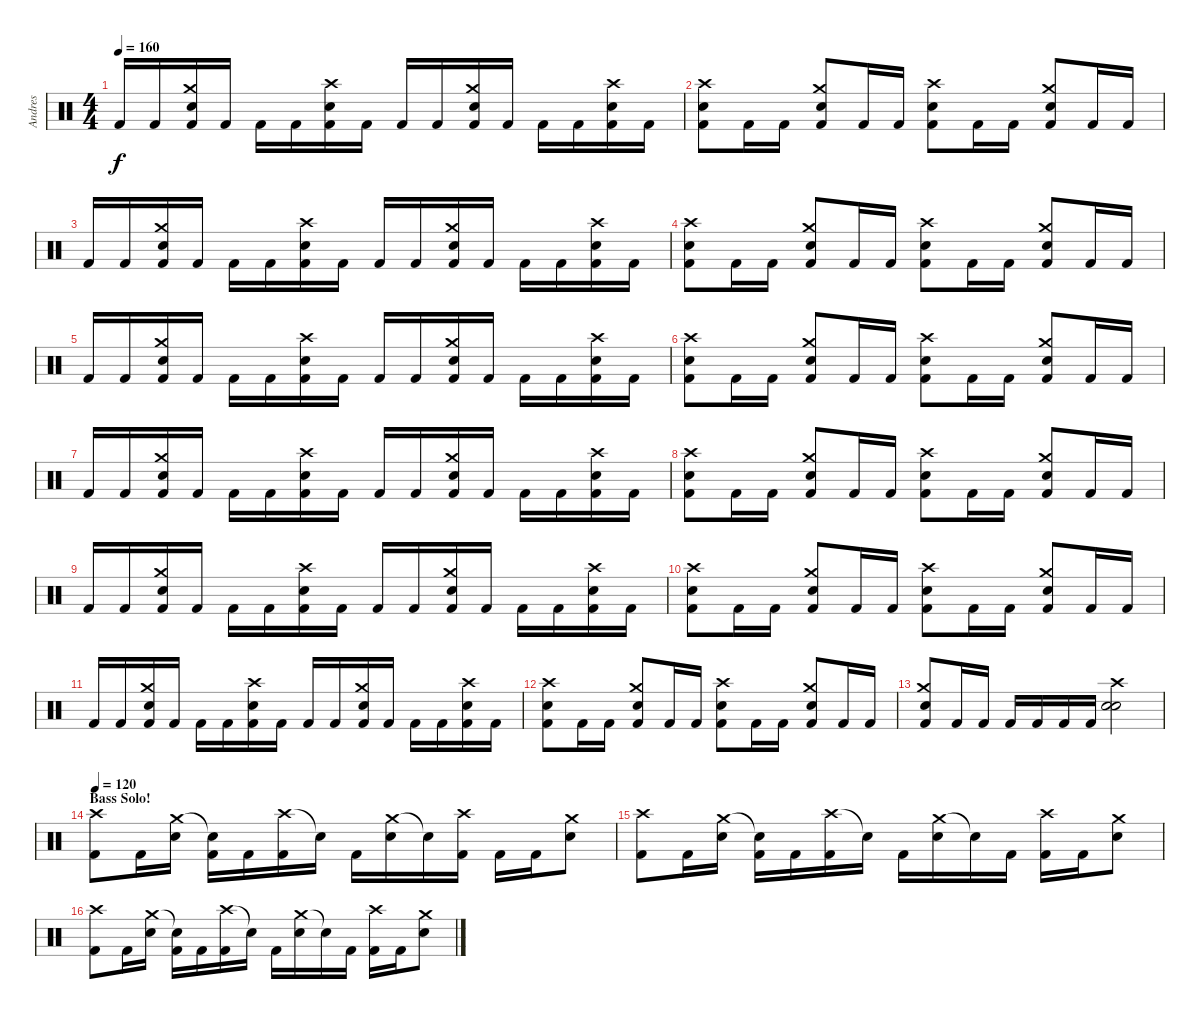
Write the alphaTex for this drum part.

\track ("Andres" "Andres") {instrument percussion}
\staff {score}
\articulation defaults
\ts (4 4)
\tempo 160
\clef neutral
\ks c "Kick (hit) 2".16{dy f} "Kick (hit) 2".16
("Crash medium (hit)" "Electric Snare (hit)" "Kick (hit) 2").16 "Kick (hit) 2".16 "Kick (hit) 2".16 "Kick (hit) 2".16 ("Crash high (hit)" "Electric Snare (hit)" "Kick (hit) 2").16 "Kick (hit) 2".16 "Kick (hit) 2".16 "Kick (hit) 2".16 ("Crash medium (hit)" "Electric Snare (hit)" "Kick (hit) 2").16 "Kick (hit) 2".16 "Kick (hit) 2".16 "Kick (hit) 2".16 ("Crash high (hit)" "Electric Snare (hit)" "Kick (hit) 2").16 "Kick (hit) 2".16 |
("Crash high (hit)" "Electric Snare (hit)" "Kick (hit) 2").8 "Kick (hit) 2".16 "Kick (hit) 2".16 ("Crash medium (hit)" "Electric Snare (hit)" "Kick (hit) 2").8 "Kick (hit) 2".16 "Kick (hit) 2".16 ("Crash high (hit)" "Electric Snare (hit)" "Kick (hit) 2").8 "Kick (hit) 2".16 "Kick (hit) 2".16 ("Crash medium (hit)" "Electric Snare (hit)" "Kick (hit) 2").8 "Kick (hit) 2".16 "Kick (hit) 2".16 |
"Kick (hit) 2".16 "Kick (hit) 2".16 ("Crash medium (hit)" "Electric Snare (hit)" "Kick (hit) 2").16 "Kick (hit) 2".16 "Kick (hit) 2".16 "Kick (hit) 2".16 ("Crash high (hit)" "Electric Snare (hit)" "Kick (hit) 2").16 "Kick (hit) 2".16 "Kick (hit) 2".16 "Kick (hit) 2".16 ("Crash medium (hit)" "Electric Snare (hit)" "Kick (hit) 2").16 "Kick (hit) 2".16 "Kick (hit) 2".16 "Kick (hit) 2".16 ("Crash high (hit)" "Electric Snare (hit)" "Kick (hit) 2").16 "Kick (hit) 2".16 |
("Crash high (hit)" "Electric Snare (hit)" "Kick (hit) 2").8 "Kick (hit) 2".16 "Kick (hit) 2".16 ("Crash medium (hit)" "Electric Snare (hit)" "Kick (hit) 2").8 "Kick (hit) 2".16 "Kick (hit) 2".16 ("Crash high (hit)" "Electric Snare (hit)" "Kick (hit) 2").8 "Kick (hit) 2".16 "Kick (hit) 2".16 ("Crash medium (hit)" "Electric Snare (hit)" "Kick (hit) 2").8 "Kick (hit) 2".16 "Kick (hit) 2".16 |
"Kick (hit) 2".16 "Kick (hit) 2".16 ("Crash medium (hit)" "Electric Snare (hit)" "Kick (hit) 2").16 "Kick (hit) 2".16 "Kick (hit) 2".16 "Kick (hit) 2".16 ("Crash high (hit)" "Electric Snare (hit)" "Kick (hit) 2").16 "Kick (hit) 2".16 "Kick (hit) 2".16 "Kick (hit) 2".16 ("Crash medium (hit)" "Electric Snare (hit)" "Kick (hit) 2").16 "Kick (hit) 2".16 "Kick (hit) 2".16 "Kick (hit) 2".16 ("Crash high (hit)" "Electric Snare (hit)" "Kick (hit) 2").16 "Kick (hit) 2".16 |
("Crash high (hit)" "Electric Snare (hit)" "Kick (hit) 2").8 "Kick (hit) 2".16 "Kick (hit) 2".16 ("Crash medium (hit)" "Electric Snare (hit)" "Kick (hit) 2").8 "Kick (hit) 2".16 "Kick (hit) 2".16 ("Crash high (hit)" "Electric Snare (hit)" "Kick (hit) 2").8 "Kick (hit) 2".16 "Kick (hit) 2".16 ("Crash medium (hit)" "Electric Snare (hit)" "Kick (hit) 2").8 "Kick (hit) 2".16 "Kick (hit) 2".16 |
"Kick (hit) 2".16 "Kick (hit) 2".16 ("Crash medium (hit)" "Electric Snare (hit)" "Kick (hit) 2").16 "Kick (hit) 2".16 "Kick (hit) 2".16 "Kick (hit) 2".16 ("Crash high (hit)" "Electric Snare (hit)" "Kick (hit) 2").16 "Kick (hit) 2".16 "Kick (hit) 2".16 "Kick (hit) 2".16 ("Crash medium (hit)" "Electric Snare (hit)" "Kick (hit) 2").16 "Kick (hit) 2".16 "Kick (hit) 2".16 "Kick (hit) 2".16 ("Crash high (hit)" "Electric Snare (hit)" "Kick (hit) 2").16 "Kick (hit) 2".16 |
("Crash high (hit)" "Electric Snare (hit)" "Kick (hit) 2").8 "Kick (hit) 2".16 "Kick (hit) 2".16 ("Crash medium (hit)" "Electric Snare (hit)" "Kick (hit) 2").8 "Kick (hit) 2".16 "Kick (hit) 2".16 ("Crash high (hit)" "Electric Snare (hit)" "Kick (hit) 2").8 "Kick (hit) 2".16 "Kick (hit) 2".16 ("Crash medium (hit)" "Electric Snare (hit)" "Kick (hit) 2").8 "Kick (hit) 2".16 "Kick (hit) 2".16 |
"Kick (hit) 2".16 "Kick (hit) 2".16 ("Crash medium (hit)" "Electric Snare (hit)" "Kick (hit) 2").16 "Kick (hit) 2".16 "Kick (hit) 2".16 "Kick (hit) 2".16 ("Crash high (hit)" "Electric Snare (hit)" "Kick (hit) 2").16 "Kick (hit) 2".16 "Kick (hit) 2".16 "Kick (hit) 2".16 ("Crash medium (hit)" "Electric Snare (hit)" "Kick (hit) 2").16 "Kick (hit) 2".16 "Kick (hit) 2".16 "Kick (hit) 2".16 ("Crash high (hit)" "Electric Snare (hit)" "Kick (hit) 2").16 "Kick (hit) 2".16 |
("Crash high (hit)" "Electric Snare (hit)" "Kick (hit) 2").8 "Kick (hit) 2".16 "Kick (hit) 2".16 ("Crash medium (hit)" "Electric Snare (hit)" "Kick (hit) 2").8 "Kick (hit) 2".16 "Kick (hit) 2".16 ("Crash high (hit)" "Electric Snare (hit)" "Kick (hit) 2").8 "Kick (hit) 2".16 "Kick (hit) 2".16 ("Crash medium (hit)" "Electric Snare (hit)" "Kick (hit) 2").8 "Kick (hit) 2".16 "Kick (hit) 2".16 |
"Kick (hit) 2".16 "Kick (hit) 2".16 ("Crash medium (hit)" "Electric Snare (hit)" "Kick (hit) 2").16 "Kick (hit) 2".16 "Kick (hit) 2".16 "Kick (hit) 2".16 ("Crash high (hit)" "Electric Snare (hit)" "Kick (hit) 2").16 "Kick (hit) 2".16 "Kick (hit) 2".16 "Kick (hit) 2".16 ("Crash medium (hit)" "Electric Snare (hit)" "Kick (hit) 2").16 "Kick (hit) 2".16 "Kick (hit) 2".16 "Kick (hit) 2".16 ("Crash high (hit)" "Electric Snare (hit)" "Kick (hit) 2").16 "Kick (hit) 2".16 |
("Crash high (hit)" "Electric Snare (hit)" "Kick (hit) 2").8 "Kick (hit) 2".16 "Kick (hit) 2".16 ("Crash medium (hit)" "Electric Snare (hit)" "Kick (hit) 2").8 "Kick (hit) 2".16 "Kick (hit) 2".16 ("Crash high (hit)" "Electric Snare (hit)" "Kick (hit) 2").8 "Kick (hit) 2".16 "Kick (hit) 2".16 ("Crash medium (hit)" "Electric Snare (hit)" "Kick (hit) 2").8 "Kick (hit) 2".16 "Kick (hit) 2".16 |
("Crash medium (hit)" "Electric Snare (hit)" "Kick (hit) 2").8 "Kick (hit) 2".16 "Kick (hit) 2".16 "Kick (hit) 2".16 "Kick (hit) 2".16 "Kick (hit) 2".16 "Kick (hit) 2".16 ("Crash high (hit)" "Electric Snare (hit)" "Electric Snare (hit)").2 |
\section ("" "Bass Solo!")
\tempo 120
("Crash high (hit)" "Kick (hit) 2").8{volume 11} "Kick (hit) 2".16 ("Crash medium (hit)" "Electric Snare (hit)").16 ("Snare (hit)"{t} "Kick (hit) 2").16 "Kick (hit) 2".16 ("Crash high (hit)" "Kick (hit) 2").16 "Snare (hit)"{t}.16 "Kick (hit) 2".16 ("Crash medium (hit)" "Electric Snare (hit)").16 "Electric Snare (hit)"{t}.16 ("Crash high (hit)" "Kick (hit) 2").16 "Kick (hit) 2".16 "Kick (hit) 2".16 ("Crash medium (hit)" "Electric Snare (hit)").8 |
("Crash high (hit)" "Kick (hit) 2").8 "Kick (hit) 2".16 ("Crash medium (hit)" "Electric Snare (hit)").16 ("Snare (hit)"{t} "Kick (hit) 2").16 "Kick (hit) 2".16 ("Crash high (hit)" "Kick (hit) 2").16 "Snare (hit)"{t}.16 "Kick (hit) 2".16 ("Crash medium (hit)" "Electric Snare (hit)").16 "Electric Snare (hit)"{t}.16 "Kick (hit) 2".16 ("Crash high (hit)" "Kick (hit) 2").16 "Kick (hit) 2".16 ("Crash medium (hit)" "Electric Snare (hit)").8 |
("Crash high (hit)" "Kick (hit) 2").8 "Kick (hit) 2".16 ("Crash medium (hit)" "Electric Snare (hit)").16 ("Snare (hit)"{t} "Kick (hit) 2").16 "Kick (hit) 2".16 ("Crash high (hit)" "Kick (hit) 2").16 "Snare (hit)"{t}.16 "Kick (hit) 2".16 ("Crash medium (hit)" "Electric Snare (hit)").16 "Electric Snare (hit)"{t}.16 "Kick (hit) 2".16 ("Crash high (hit)" "Kick (hit) 2").16 "Kick (hit) 2".16 ("Crash medium (hit)" "Electric Snare (hit)").8
